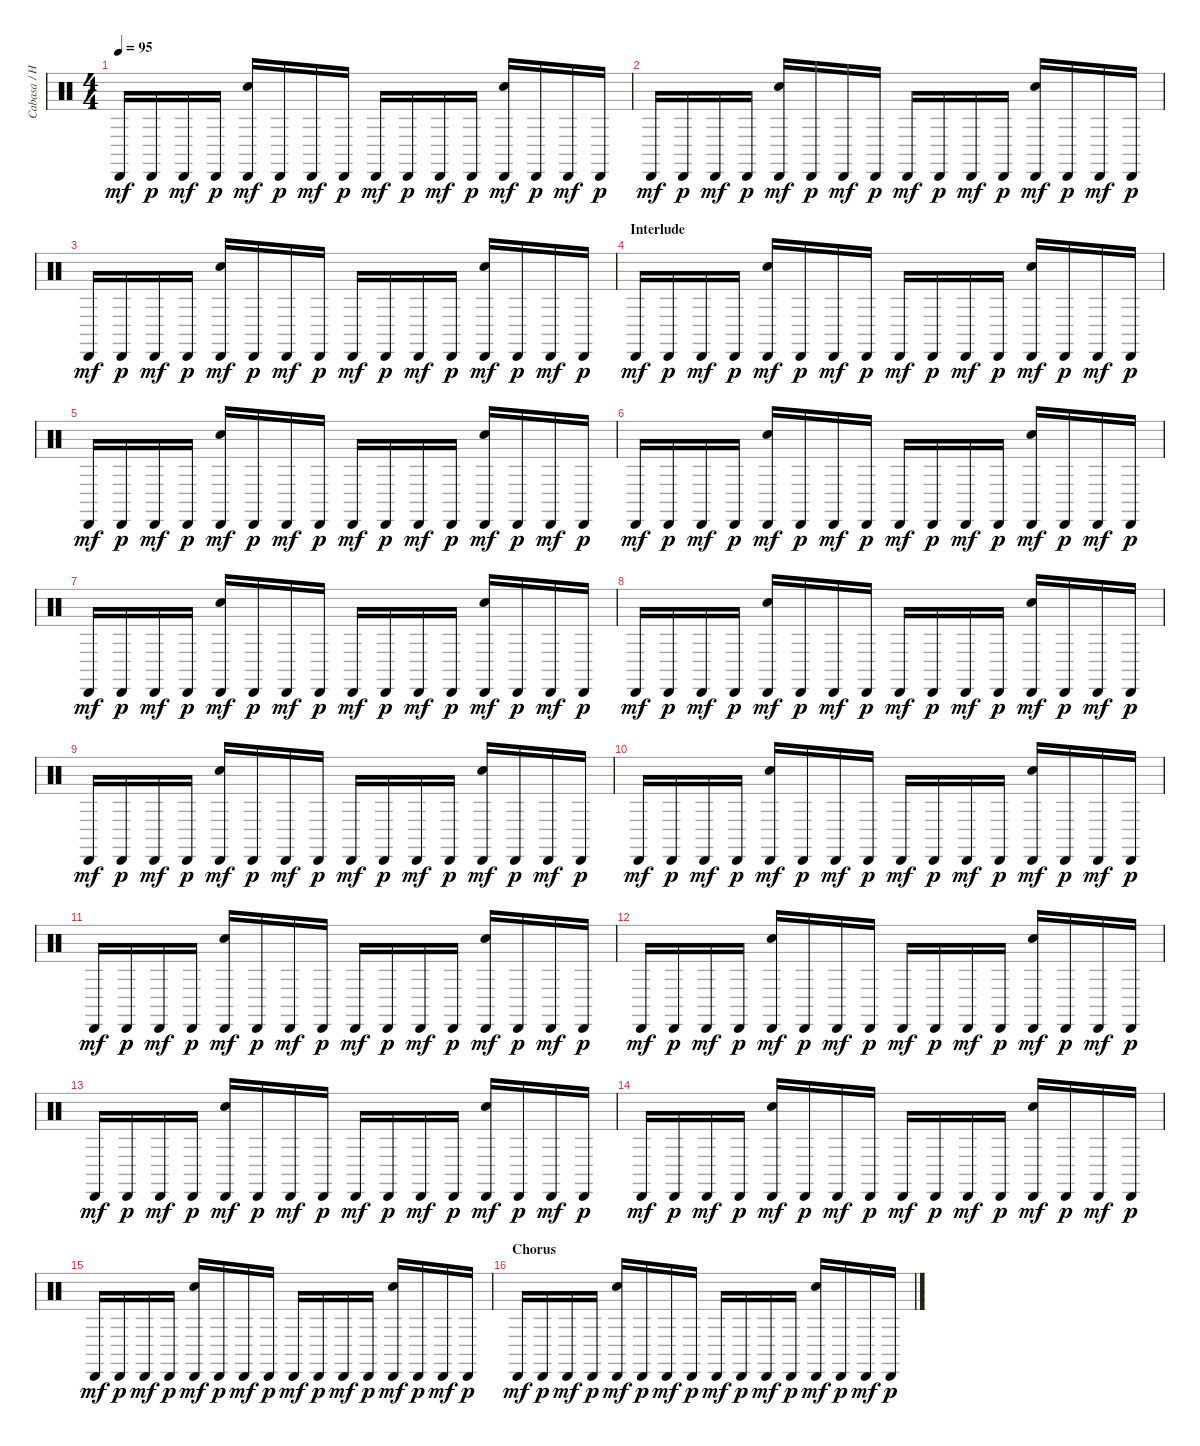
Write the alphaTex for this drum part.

\track ("Cabasa / Hand Clap" "Cabasa / H") {instrument percussion}
\staff {score}
\articulation defaults
\ts (4 4)
\tempo 95
\clef neutral
\ks aminor "Cabasa (hit)".16{dy mf} "Cabasa (hit)".16{dy p} "Cabasa (hit)".16{dy mf} "Cabasa (hit)".16{dy p}
("Hand Clap (hit)" "Cabasa (hit)").16{dy mf} "Cabasa (hit)".16{dy p} "Cabasa (hit)".16{dy mf} "Cabasa (hit)".16{dy p} "Cabasa (hit)".16{dy mf} "Cabasa (hit)".16{dy p} "Cabasa (hit)".16{dy mf} "Cabasa (hit)".16{dy p} ("Hand Clap (hit)" "Cabasa (hit)").16{dy mf} "Cabasa (hit)".16{dy p} "Cabasa (hit)".16{dy mf} "Cabasa (hit)".16{dy p} |
"Cabasa (hit)".16{dy mf} "Cabasa (hit)".16{dy p} "Cabasa (hit)".16{dy mf} "Cabasa (hit)".16{dy p} ("Hand Clap (hit)" "Cabasa (hit)").16{dy mf} "Cabasa (hit)".16{dy p} "Cabasa (hit)".16{dy mf} "Cabasa (hit)".16{dy p} "Cabasa (hit)".16{dy mf} "Cabasa (hit)".16{dy p} "Cabasa (hit)".16{dy mf} "Cabasa (hit)".16{dy p} ("Hand Clap (hit)" "Cabasa (hit)").16{dy mf} "Cabasa (hit)".16{dy p} "Cabasa (hit)".16{dy mf} "Cabasa (hit)".16{dy p} |
"Cabasa (hit)".16{dy mf} "Cabasa (hit)".16{dy p} "Cabasa (hit)".16{dy mf} "Cabasa (hit)".16{dy p} ("Hand Clap (hit)" "Cabasa (hit)").16{dy mf} "Cabasa (hit)".16{dy p} "Cabasa (hit)".16{dy mf} "Cabasa (hit)".16{dy p} "Cabasa (hit)".16{dy mf} "Cabasa (hit)".16{dy p} "Cabasa (hit)".16{dy mf} "Cabasa (hit)".16{dy p} ("Hand Clap (hit)" "Cabasa (hit)").16{dy mf} "Cabasa (hit)".16{dy p} "Cabasa (hit)".16{dy mf} "Cabasa (hit)".16{dy p} |
\section ("" "Interlude")
"Cabasa (hit)".16{dy mf} "Cabasa (hit)".16{dy p} "Cabasa (hit)".16{dy mf} "Cabasa (hit)".16{dy p} ("Hand Clap (hit)" "Cabasa (hit)").16{dy mf} "Cabasa (hit)".16{dy p} "Cabasa (hit)".16{dy mf} "Cabasa (hit)".16{dy p} "Cabasa (hit)".16{dy mf} "Cabasa (hit)".16{dy p} "Cabasa (hit)".16{dy mf} "Cabasa (hit)".16{dy p} ("Hand Clap (hit)" "Cabasa (hit)").16{dy mf} "Cabasa (hit)".16{dy p} "Cabasa (hit)".16{dy mf} "Cabasa (hit)".16{dy p} |
"Cabasa (hit)".16{dy mf} "Cabasa (hit)".16{dy p} "Cabasa (hit)".16{dy mf} "Cabasa (hit)".16{dy p} ("Hand Clap (hit)" "Cabasa (hit)").16{dy mf} "Cabasa (hit)".16{dy p} "Cabasa (hit)".16{dy mf} "Cabasa (hit)".16{dy p} "Cabasa (hit)".16{dy mf} "Cabasa (hit)".16{dy p} "Cabasa (hit)".16{dy mf} "Cabasa (hit)".16{dy p} ("Hand Clap (hit)" "Cabasa (hit)").16{dy mf} "Cabasa (hit)".16{dy p} "Cabasa (hit)".16{dy mf} "Cabasa (hit)".16{dy p} |
"Cabasa (hit)".16{dy mf} "Cabasa (hit)".16{dy p} "Cabasa (hit)".16{dy mf} "Cabasa (hit)".16{dy p} ("Hand Clap (hit)" "Cabasa (hit)").16{dy mf} "Cabasa (hit)".16{dy p} "Cabasa (hit)".16{dy mf} "Cabasa (hit)".16{dy p} "Cabasa (hit)".16{dy mf} "Cabasa (hit)".16{dy p} "Cabasa (hit)".16{dy mf} "Cabasa (hit)".16{dy p} ("Hand Clap (hit)" "Cabasa (hit)").16{dy mf} "Cabasa (hit)".16{dy p} "Cabasa (hit)".16{dy mf} "Cabasa (hit)".16{dy p} |
"Cabasa (hit)".16{dy mf} "Cabasa (hit)".16{dy p} "Cabasa (hit)".16{dy mf} "Cabasa (hit)".16{dy p} ("Hand Clap (hit)" "Cabasa (hit)").16{dy mf} "Cabasa (hit)".16{dy p} "Cabasa (hit)".16{dy mf} "Cabasa (hit)".16{dy p} "Cabasa (hit)".16{dy mf} "Cabasa (hit)".16{dy p} "Cabasa (hit)".16{dy mf} "Cabasa (hit)".16{dy p} ("Hand Clap (hit)" "Cabasa (hit)").16{dy mf} "Cabasa (hit)".16{dy p} "Cabasa (hit)".16{dy mf} "Cabasa (hit)".16{dy p} |
"Cabasa (hit)".16{dy mf} "Cabasa (hit)".16{dy p} "Cabasa (hit)".16{dy mf} "Cabasa (hit)".16{dy p} ("Hand Clap (hit)" "Cabasa (hit)").16{dy mf} "Cabasa (hit)".16{dy p} "Cabasa (hit)".16{dy mf} "Cabasa (hit)".16{dy p} "Cabasa (hit)".16{dy mf} "Cabasa (hit)".16{dy p} "Cabasa (hit)".16{dy mf} "Cabasa (hit)".16{dy p} ("Hand Clap (hit)" "Cabasa (hit)").16{dy mf} "Cabasa (hit)".16{dy p} "Cabasa (hit)".16{dy mf} "Cabasa (hit)".16{dy p} |
"Cabasa (hit)".16{dy mf} "Cabasa (hit)".16{dy p} "Cabasa (hit)".16{dy mf} "Cabasa (hit)".16{dy p} ("Hand Clap (hit)" "Cabasa (hit)").16{dy mf} "Cabasa (hit)".16{dy p} "Cabasa (hit)".16{dy mf} "Cabasa (hit)".16{dy p} "Cabasa (hit)".16{dy mf} "Cabasa (hit)".16{dy p} "Cabasa (hit)".16{dy mf} "Cabasa (hit)".16{dy p} ("Hand Clap (hit)" "Cabasa (hit)").16{dy mf} "Cabasa (hit)".16{dy p} "Cabasa (hit)".16{dy mf} "Cabasa (hit)".16{dy p} |
"Cabasa (hit)".16{dy mf} "Cabasa (hit)".16{dy p} "Cabasa (hit)".16{dy mf} "Cabasa (hit)".16{dy p} ("Hand Clap (hit)" "Cabasa (hit)").16{dy mf} "Cabasa (hit)".16{dy p} "Cabasa (hit)".16{dy mf} "Cabasa (hit)".16{dy p} "Cabasa (hit)".16{dy mf} "Cabasa (hit)".16{dy p} "Cabasa (hit)".16{dy mf} "Cabasa (hit)".16{dy p} ("Hand Clap (hit)" "Cabasa (hit)").16{dy mf} "Cabasa (hit)".16{dy p} "Cabasa (hit)".16{dy mf} "Cabasa (hit)".16{dy p} |
"Cabasa (hit)".16{dy mf} "Cabasa (hit)".16{dy p} "Cabasa (hit)".16{dy mf} "Cabasa (hit)".16{dy p} ("Hand Clap (hit)" "Cabasa (hit)").16{dy mf} "Cabasa (hit)".16{dy p} "Cabasa (hit)".16{dy mf} "Cabasa (hit)".16{dy p} "Cabasa (hit)".16{dy mf} "Cabasa (hit)".16{dy p} "Cabasa (hit)".16{dy mf} "Cabasa (hit)".16{dy p} ("Hand Clap (hit)" "Cabasa (hit)").16{dy mf} "Cabasa (hit)".16{dy p} "Cabasa (hit)".16{dy mf} "Cabasa (hit)".16{dy p} |
"Cabasa (hit)".16{dy mf} "Cabasa (hit)".16{dy p} "Cabasa (hit)".16{dy mf} "Cabasa (hit)".16{dy p} ("Hand Clap (hit)" "Cabasa (hit)").16{dy mf} "Cabasa (hit)".16{dy p} "Cabasa (hit)".16{dy mf} "Cabasa (hit)".16{dy p} "Cabasa (hit)".16{dy mf} "Cabasa (hit)".16{dy p} "Cabasa (hit)".16{dy mf} "Cabasa (hit)".16{dy p} ("Hand Clap (hit)" "Cabasa (hit)").16{dy mf} "Cabasa (hit)".16{dy p} "Cabasa (hit)".16{dy mf} "Cabasa (hit)".16{dy p} |
"Cabasa (hit)".16{dy mf} "Cabasa (hit)".16{dy p} "Cabasa (hit)".16{dy mf} "Cabasa (hit)".16{dy p} ("Hand Clap (hit)" "Cabasa (hit)").16{dy mf} "Cabasa (hit)".16{dy p} "Cabasa (hit)".16{dy mf} "Cabasa (hit)".16{dy p} "Cabasa (hit)".16{dy mf} "Cabasa (hit)".16{dy p} "Cabasa (hit)".16{dy mf} "Cabasa (hit)".16{dy p} ("Hand Clap (hit)" "Cabasa (hit)").16{dy mf} "Cabasa (hit)".16{dy p} "Cabasa (hit)".16{dy mf} "Cabasa (hit)".16{dy p} |
"Cabasa (hit)".16{dy mf} "Cabasa (hit)".16{dy p} "Cabasa (hit)".16{dy mf} "Cabasa (hit)".16{dy p} ("Hand Clap (hit)" "Cabasa (hit)").16{dy mf} "Cabasa (hit)".16{dy p} "Cabasa (hit)".16{dy mf} "Cabasa (hit)".16{dy p} "Cabasa (hit)".16{dy mf} "Cabasa (hit)".16{dy p} "Cabasa (hit)".16{dy mf} "Cabasa (hit)".16{dy p} ("Hand Clap (hit)" "Cabasa (hit)").16{dy mf} "Cabasa (hit)".16{dy p} "Cabasa (hit)".16{dy mf} "Cabasa (hit)".16{dy p} |
"Cabasa (hit)".16{dy mf} "Cabasa (hit)".16{dy p} "Cabasa (hit)".16{dy mf} "Cabasa (hit)".16{dy p} ("Hand Clap (hit)" "Cabasa (hit)").16{dy mf} "Cabasa (hit)".16{dy p} "Cabasa (hit)".16{dy mf} "Cabasa (hit)".16{dy p} "Cabasa (hit)".16{dy mf} "Cabasa (hit)".16{dy p} "Cabasa (hit)".16{dy mf} "Cabasa (hit)".16{dy p} ("Hand Clap (hit)" "Cabasa (hit)").16{dy mf} "Cabasa (hit)".16{dy p} "Cabasa (hit)".16{dy mf} "Cabasa (hit)".16{dy p} |
\section ("" "Chorus")
"Cabasa (hit)".16{dy mf} "Cabasa (hit)".16{dy p} "Cabasa (hit)".16{dy mf} "Cabasa (hit)".16{dy p} ("Hand Clap (hit)" "Cabasa (hit)").16{dy mf} "Cabasa (hit)".16{dy p} "Cabasa (hit)".16{dy mf} "Cabasa (hit)".16{dy p} "Cabasa (hit)".16{dy mf} "Cabasa (hit)".16{dy p} "Cabasa (hit)".16{dy mf} "Cabasa (hit)".16{dy p} ("Hand Clap (hit)" "Cabasa (hit)").16{dy mf} "Cabasa (hit)".16{dy p} "Cabasa (hit)".16{dy mf} "Cabasa (hit)".16{dy p}
